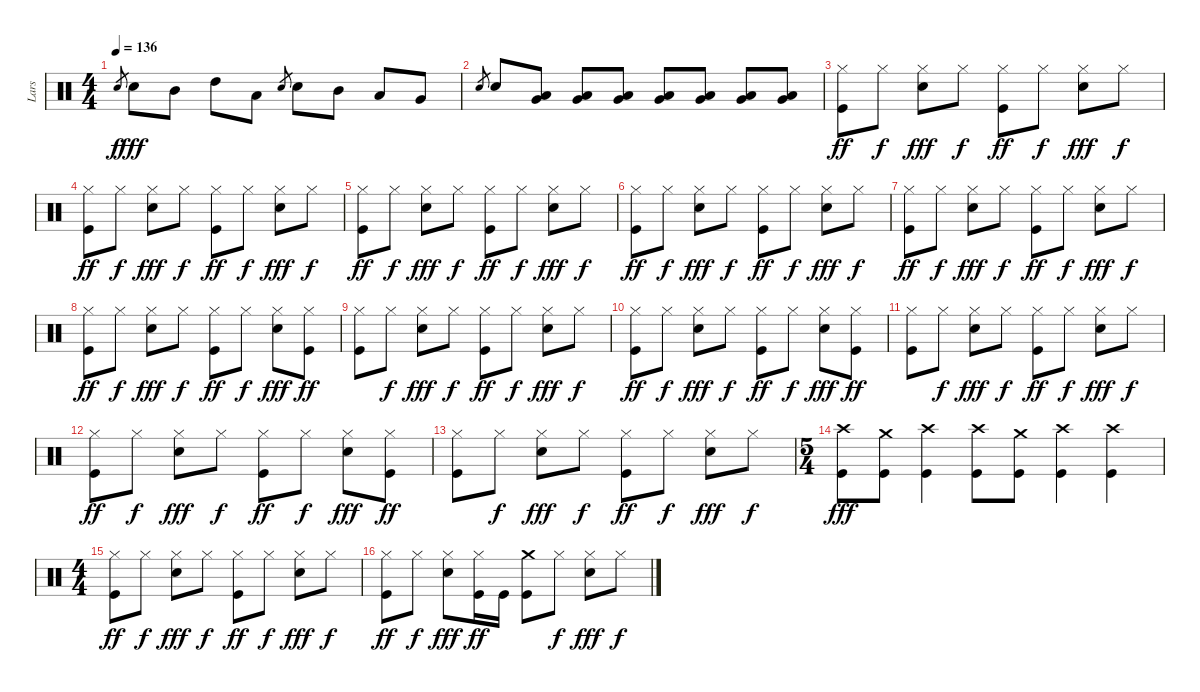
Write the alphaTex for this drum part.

\track ("Lars" "Lars") {instrument percussion}
\staff {score}
\articulation defaults
\ts (4 4)
\tempo 136
\clef neutral
\ks c "Electric Snare (hit)".8{gr dy f} "Electric Snare (hit)".8{dy fff} "Mid Tom (hit)".8 "High Tom (hit)".8 "Low Tom (hit)".8 "Electric Snare (hit)".8{gr} "Electric Snare (hit)".8 "Mid Tom (hit)".8 "Low Tom (hit)".8 "Very Low Tom (hit)".8
|
"Electric Snare (hit)".8{gr} "Electric Snare (hit)".8 ("Low Tom (hit)" "Very Low Tom (hit)").8 ("Low Tom (hit)" "Very Low Tom (hit)").8 ("Low Tom (hit)" "Very Low Tom (hit)").8 ("Low Tom (hit)" "Very Low Tom (hit)").8 ("Very Low Tom (hit)" "Low Floor Tom (hit)").8 ("Very Low Tom (hit)" "Low Floor Tom (hit)").8 ("Very Low Tom (hit)" "Low Floor Tom (hit)").8 |
("Hi-Hat (closed)" "Kick (hit)").8{dy ff} "Hi-Hat (closed)".8{dy f} ("Hi-Hat (closed)" "Electric Snare (hit)").8{dy fff} "Hi-Hat (closed)".8{dy f} ("Hi-Hat (closed)" "Kick (hit)").8{dy ff} "Hi-Hat (closed)".8{dy f} ("Hi-Hat (closed)" "Electric Snare (hit)").8{dy fff} "Hi-Hat (closed)".8{dy f} |
("Hi-Hat (closed)" "Kick (hit)").8{dy ff} "Hi-Hat (closed)".8{dy f} ("Hi-Hat (closed)" "Electric Snare (hit)").8{dy fff} "Hi-Hat (closed)".8{dy f} ("Hi-Hat (closed)" "Kick (hit)").8{dy ff} "Hi-Hat (closed)".8{dy f} ("Hi-Hat (closed)" "Electric Snare (hit)").8{dy fff} "Hi-Hat (closed)".8{dy f} |
("Hi-Hat (closed)" "Kick (hit)").8{dy ff} "Hi-Hat (closed)".8{dy f} ("Hi-Hat (closed)" "Electric Snare (hit)").8{dy fff} "Hi-Hat (closed)".8{dy f} ("Hi-Hat (closed)" "Kick (hit)").8{dy ff} "Hi-Hat (closed)".8{dy f} ("Hi-Hat (closed)" "Electric Snare (hit)").8{dy fff} "Hi-Hat (closed)".8{dy f} |
("Hi-Hat (closed)" "Kick (hit)").8{dy ff} "Hi-Hat (closed)".8{dy f} ("Hi-Hat (closed)" "Electric Snare (hit)").8{dy fff} "Hi-Hat (closed)".8{dy f} ("Hi-Hat (closed)" "Kick (hit)").8{dy ff} "Hi-Hat (closed)".8{dy f} ("Hi-Hat (closed)" "Electric Snare (hit)").8{dy fff} "Hi-Hat (closed)".8{dy f} |
("Hi-Hat (closed)" "Kick (hit)").8{dy ff} "Hi-Hat (closed)".8{dy f} ("Hi-Hat (closed)" "Electric Snare (hit)").8{dy fff} "Hi-Hat (closed)".8{dy f} ("Hi-Hat (closed)" "Kick (hit)").8{dy ff} "Hi-Hat (closed)".8{dy f} ("Hi-Hat (closed)" "Electric Snare (hit)").8{dy fff} "Hi-Hat (closed)".8{dy f} |
("Hi-Hat (closed)" "Kick (hit)").8{dy ff} "Hi-Hat (closed)".8{dy f} ("Hi-Hat (closed)" "Electric Snare (hit)").8{dy fff} "Hi-Hat (closed)".8{dy f} ("Hi-Hat (closed)" "Kick (hit)").8{dy ff} "Hi-Hat (closed)".8{dy f} ("Hi-Hat (closed)" "Electric Snare (hit)").8{dy fff} ("Hi-Hat (closed)" "Kick (hit)").8{dy ff} |
("Hi-Hat (closed)" "Kick (hit)").8 "Hi-Hat (closed)".8{dy f} ("Hi-Hat (closed)" "Electric Snare (hit)").8{dy fff} "Hi-Hat (closed)".8{dy f} ("Hi-Hat (closed)" "Kick (hit)").8{dy ff} "Hi-Hat (closed)".8{dy f} ("Hi-Hat (closed)" "Electric Snare (hit)").8{dy fff} "Hi-Hat (closed)".8{dy f} |
("Hi-Hat (closed)" "Kick (hit)").8{dy ff} "Hi-Hat (closed)".8{dy f} ("Hi-Hat (closed)" "Electric Snare (hit)").8{dy fff} "Hi-Hat (closed)".8{dy f} ("Hi-Hat (closed)" "Kick (hit)").8{dy ff} "Hi-Hat (closed)".8{dy f} ("Hi-Hat (closed)" "Electric Snare (hit)").8{dy fff} ("Hi-Hat (closed)" "Kick (hit)").8{dy ff} |
("Hi-Hat (closed)" "Kick (hit)").8 "Hi-Hat (closed)".8{dy f} ("Hi-Hat (closed)" "Electric Snare (hit)").8{dy fff} "Hi-Hat (closed)".8{dy f} ("Hi-Hat (closed)" "Kick (hit)").8{dy ff} "Hi-Hat (closed)".8{dy f} ("Hi-Hat (closed)" "Electric Snare (hit)").8{dy fff} "Hi-Hat (closed)".8{dy f} |
("Hi-Hat (closed)" "Kick (hit)").8{dy ff} "Hi-Hat (closed)".8{dy f} ("Hi-Hat (closed)" "Electric Snare (hit)").8{dy fff} "Hi-Hat (closed)".8{dy f} ("Hi-Hat (closed)" "Kick (hit)").8{dy ff} "Hi-Hat (closed)".8{dy f} ("Hi-Hat (closed)" "Electric Snare (hit)").8{dy fff} ("Hi-Hat (closed)" "Kick (hit)").8{dy ff} |
("Hi-Hat (closed)" "Kick (hit)").8 "Hi-Hat (closed)".8{dy f} ("Hi-Hat (closed)" "Electric Snare (hit)").8{dy fff} "Hi-Hat (closed)".8{dy f} ("Hi-Hat (closed)" "Kick (hit)").8{dy ff} "Hi-Hat (closed)".8{dy f} ("Hi-Hat (closed)" "Electric Snare (hit)").8{dy fff} "Hi-Hat (closed)".8{dy f} |
\ts (5 4)
("Crash high (hit)" "Kick (hit)").8{dy fff} ("Crash medium (hit)" "Kick (hit)").8 ("Crash high (hit)" "Kick (hit)").4 ("Crash high (hit)" "Kick (hit)").8 ("Crash medium (hit)" "Kick (hit)").8 ("Crash high (hit)" "Kick (hit)").4 ("Crash high (hit)" "Kick (hit)").4 |
\ts (4 4)
("Hi-Hat (closed)" "Kick (hit)").8{dy ff} "Hi-Hat (closed)".8{dy f} ("Hi-Hat (closed)" "Electric Snare (hit)").8{dy fff} "Hi-Hat (closed)".8{dy f} ("Hi-Hat (closed)" "Kick (hit)").8{dy ff} "Hi-Hat (closed)".8{dy f} ("Hi-Hat (closed)" "Electric Snare (hit)").8{dy fff} "Hi-Hat (closed)".8{dy f} |
("Hi-Hat (closed)" "Kick (hit)").8{dy ff} "Hi-Hat (closed)".8{dy f} ("Hi-Hat (closed)" "Electric Snare (hit)").8{dy fff} ("Hi-Hat (closed)" "Kick (hit)").16{dy ff} "Kick (hit)".16 ("Crash medium (hit)" "Kick (hit)").8 "Hi-Hat (closed)".8{dy f} ("Hi-Hat (closed)" "Electric Snare (hit)").8{dy fff} "Hi-Hat (closed)".8{dy f}
